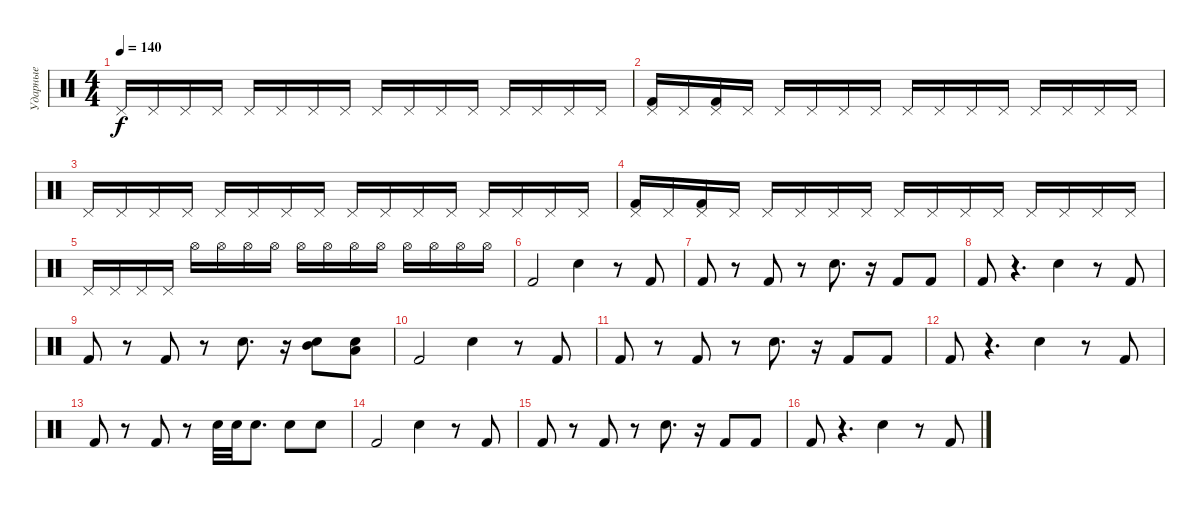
\track ("Ударные" "Ударные") {instrument percussion}
\staff {score}
\articulation defaults
\ts (4 4)
\tempo 140
\clef neutral
\ks c "Pedal Hi-Hat (hit)".16{dy f} "Pedal Hi-Hat (hit)".16 "Pedal Hi-Hat (hit)".16 "Pedal Hi-Hat (hit)".16 "Pedal Hi-Hat (hit)".16 "Pedal Hi-Hat (hit)".16 "Pedal Hi-Hat (hit)".16 "Pedal Hi-Hat (hit)".16 "Pedal Hi-Hat (hit)".16 "Pedal Hi-Hat (hit)".16 "Pedal Hi-Hat (hit)".16 "Pedal Hi-Hat (hit)".16 "Pedal Hi-Hat (hit)".16 "Pedal Hi-Hat (hit)".16 "Pedal Hi-Hat (hit)".16 "Pedal Hi-Hat (hit)".16
|
("Pedal Hi-Hat (hit)" "Kick (hit) 2").16 "Pedal Hi-Hat (hit)".16 ("Pedal Hi-Hat (hit)" "Kick (hit) 2").16 "Pedal Hi-Hat (hit)".16 "Pedal Hi-Hat (hit)".16 "Pedal Hi-Hat (hit)".16 "Pedal Hi-Hat (hit)".16 "Pedal Hi-Hat (hit)".16 "Pedal Hi-Hat (hit)".16 "Pedal Hi-Hat (hit)".16 "Pedal Hi-Hat (hit)".16 "Pedal Hi-Hat (hit)".16 "Pedal Hi-Hat (hit)".16 "Pedal Hi-Hat (hit)".16 "Pedal Hi-Hat (hit)".16 "Pedal Hi-Hat (hit)".16 |
"Pedal Hi-Hat (hit)".16 "Pedal Hi-Hat (hit)".16 "Pedal Hi-Hat (hit)".16 "Pedal Hi-Hat (hit)".16 "Pedal Hi-Hat (hit)".16 "Pedal Hi-Hat (hit)".16 "Pedal Hi-Hat (hit)".16 "Pedal Hi-Hat (hit)".16 "Pedal Hi-Hat (hit)".16 "Pedal Hi-Hat (hit)".16 "Pedal Hi-Hat (hit)".16 "Pedal Hi-Hat (hit)".16 "Pedal Hi-Hat (hit)".16 "Pedal Hi-Hat (hit)".16 "Pedal Hi-Hat (hit)".16 "Pedal Hi-Hat (hit)".16 |
("Pedal Hi-Hat (hit)" "Kick (hit) 2").16 "Pedal Hi-Hat (hit)".16 ("Pedal Hi-Hat (hit)" "Kick (hit) 2").16 "Pedal Hi-Hat (hit)".16 "Pedal Hi-Hat (hit)".16 "Pedal Hi-Hat (hit)".16 "Pedal Hi-Hat (hit)".16 "Pedal Hi-Hat (hit)".16 "Pedal Hi-Hat (hit)".16 "Pedal Hi-Hat (hit)".16 "Pedal Hi-Hat (hit)".16 "Pedal Hi-Hat (hit)".16 "Pedal Hi-Hat (hit)".16 "Pedal Hi-Hat (hit)".16 "Pedal Hi-Hat (hit)".16 "Pedal Hi-Hat (hit)".16 |
"Pedal Hi-Hat (hit)".16 "Pedal Hi-Hat (hit)".16 "Pedal Hi-Hat (hit)".16 "Pedal Hi-Hat (hit)".16 "Hi-Hat (open)".16 "Hi-Hat (open)".16 "Hi-Hat (open)".16 "Hi-Hat (open)".16 "Hi-Hat (open)".16 "Hi-Hat (open)".16 "Hi-Hat (open)".16 "Hi-Hat (open)".16 "Hi-Hat (open)".16 "Hi-Hat (open)".16 "Hi-Hat (open)".16 "Hi-Hat (open)".16 |
"Kick (hit) 2".2 "Electric Snare (hit)".4 r.8 "Kick (hit) 2".8 |
"Kick (hit) 2".8 r.8 "Kick (hit) 2".8 r.8 "Electric Snare (hit)".8{d} r.16 "Kick (hit) 2".8 "Kick (hit) 2".8 |
"Kick (hit) 2".8 r.4{d} "Electric Snare (hit)".4 r.8 "Kick (hit) 2".8 |
"Kick (hit) 2".8 r.8 "Kick (hit) 2".8 r.8 "Electric Snare (hit)".8{d} r.16 ("Electric Snare (hit)" "Mid Tom (hit)").8 ("Electric Snare (hit)" "Low Tom (hit)").8 |
"Kick (hit) 2".2 "Electric Snare (hit)".4 r.8 "Kick (hit) 2".8 |
"Kick (hit) 2".8 r.8 "Kick (hit) 2".8 r.8 "Electric Snare (hit)".8{d} r.16 "Kick (hit) 2".8 "Kick (hit) 2".8 |
"Kick (hit) 2".8 r.4{d} "Electric Snare (hit)".4 r.8 "Kick (hit) 2".8 |
"Kick (hit) 2".8 r.8 "Kick (hit) 2".8 r.8 "Electric Snare (hit)".32 "Electric Snare (hit)".32 "Electric Snare (hit)".8{d} "Electric Snare (hit)".8 "Electric Snare (hit)".8 |
"Kick (hit) 2".2 "Electric Snare (hit)".4 r.8 "Kick (hit) 2".8 |
"Kick (hit) 2".8 r.8 "Kick (hit) 2".8 r.8 "Electric Snare (hit)".8{d} r.16 "Kick (hit) 2".8 "Kick (hit) 2".8 |
"Kick (hit) 2".8 r.4{d} "Electric Snare (hit)".4 r.8 "Kick (hit) 2".8
